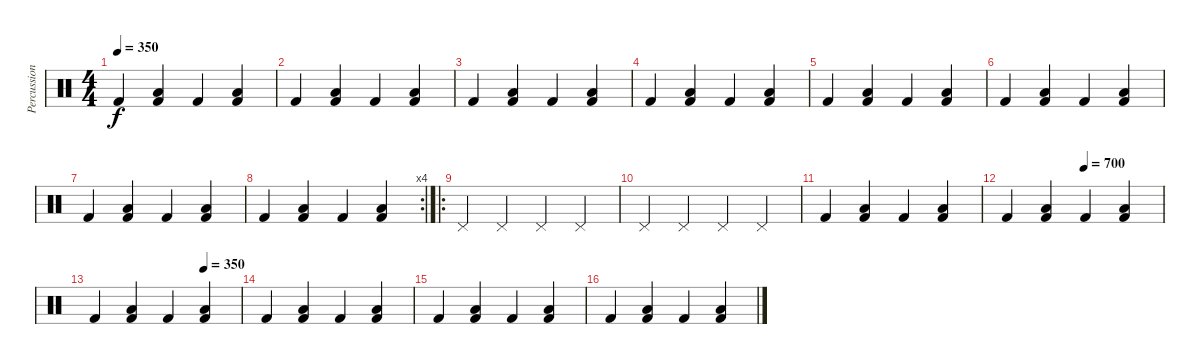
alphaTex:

\track ("Percussion" "Percussion") {instrument percussion}
\staff {score}
\articulation defaults
\ts (4 4)
\tempo 350
\clef neutral
\ks c "Kick (hit) 2".4{dy f}
("Low Tom (hit)" "Kick (hit) 2").4 "Kick (hit) 2".4 ("Low Tom (hit)" "Kick (hit) 2").4 |
"Kick (hit) 2".4 ("Low Tom (hit)" "Kick (hit) 2").4 "Kick (hit) 2".4 ("Low Tom (hit)" "Kick (hit) 2").4 |
"Kick (hit) 2".4 ("Low Tom (hit)" "Kick (hit) 2").4 "Kick (hit) 2".4 ("Low Tom (hit)" "Kick (hit) 2").4 |
"Kick (hit) 2".4 ("Low Tom (hit)" "Kick (hit) 2").4 "Kick (hit) 2".4 ("Low Tom (hit)" "Kick (hit) 2").4 |
"Kick (hit) 2".4 ("Low Tom (hit)" "Kick (hit) 2").4 "Kick (hit) 2".4 ("Low Tom (hit)" "Kick (hit) 2").4 |
"Kick (hit) 2".4 ("Low Tom (hit)" "Kick (hit) 2").4 "Kick (hit) 2".4 ("Low Tom (hit)" "Kick (hit) 2").4 |
"Kick (hit) 2".4 ("Low Tom (hit)" "Kick (hit) 2").4 "Kick (hit) 2".4 ("Low Tom (hit)" "Kick (hit) 2").4 |
\rc 4 "Kick (hit) 2".4
("Low Tom (hit)" "Kick (hit) 2").4 "Kick (hit) 2".4 ("Low Tom (hit)" "Kick (hit) 2").4 |
\ro "Pedal Hi-Hat (hit)".4 "Pedal Hi-Hat (hit)".4 "Pedal Hi-Hat (hit)".4 "Pedal Hi-Hat (hit)".4
|
"Pedal Hi-Hat (hit)".4 "Pedal Hi-Hat (hit)".4 "Pedal Hi-Hat (hit)".4 "Pedal Hi-Hat (hit)".4 |
"Kick (hit) 2".4 ("Low Tom (hit)" "Kick (hit) 2").4 "Kick (hit) 2".4 ("Low Tom (hit)" "Kick (hit) 2").4 |
\tempo (700 0.5)
"Kick (hit) 2".4 ("Low Tom (hit)" "Kick (hit) 2").4 "Kick (hit) 2".4 ("Low Tom (hit)" "Kick (hit) 2").4 |
\tempo (350 0.75)
"Kick (hit) 2".4 ("Low Tom (hit)" "Kick (hit) 2").4 "Kick (hit) 2".4 ("Low Tom (hit)" "Kick (hit) 2").4 |
"Kick (hit) 2".4 ("Low Tom (hit)" "Kick (hit) 2").4 "Kick (hit) 2".4 ("Low Tom (hit)" "Kick (hit) 2").4 |
"Kick (hit) 2".4 ("Low Tom (hit)" "Kick (hit) 2").4 "Kick (hit) 2".4 ("Low Tom (hit)" "Kick (hit) 2").4 |
"Kick (hit) 2".4 ("Low Tom (hit)" "Kick (hit) 2").4 "Kick (hit) 2".4 ("Low Tom (hit)" "Kick (hit) 2").4
